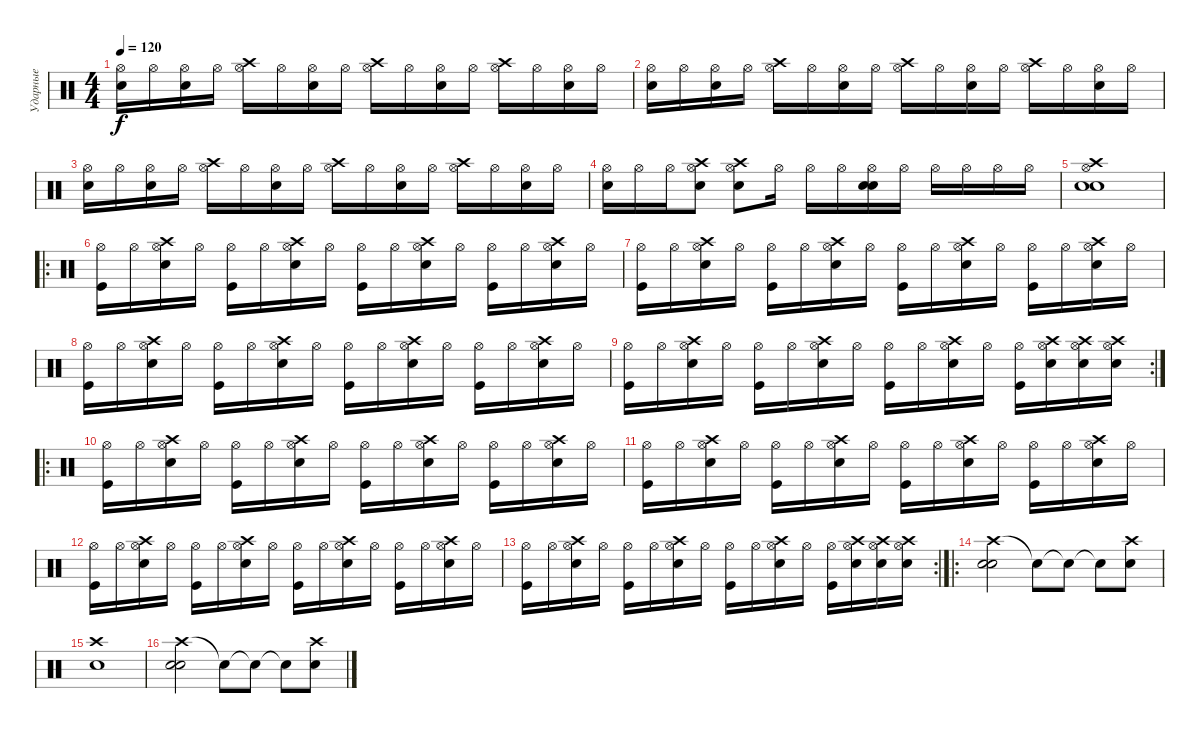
\track ("Ударные" "Ударные") {instrument percussion}
\staff {score}
\articulation defaults
\ts (4 4)
\tempo 120
\clef neutral
\ks c
("Hi-Hat (open)" "Snare (hit) 2").16{dy f} "Hi-Hat (open)".16 ("Hi-Hat (open)" "Snare (hit) 2").16 "Hi-Hat (open)".16 ("Hi-Hat (open)" "Crash high (hit)").16 "Hi-Hat (open)".16 ("Hi-Hat (open)" "Snare (hit) 2").16 "Hi-Hat (open)".16 ("Hi-Hat (open)" "Crash high (hit)").16 "Hi-Hat (open)".16 ("Hi-Hat (open)" "Snare (hit) 2").16 "Hi-Hat (open)".16 ("Hi-Hat (open)" "Crash high (hit)").16 "Hi-Hat (open)".16 ("Hi-Hat (open)" "Snare (hit) 2").16 "Hi-Hat (open)".16 |
("Hi-Hat (open)" "Snare (hit) 2").16 "Hi-Hat (open)".16 ("Hi-Hat (open)" "Snare (hit) 2").16 "Hi-Hat (open)".16 ("Hi-Hat (open)" "Crash high (hit)").16 "Hi-Hat (open)".16 ("Hi-Hat (open)" "Snare (hit) 2").16 "Hi-Hat (open)".16 ("Hi-Hat (open)" "Crash high (hit)").16 "Hi-Hat (open)".16 ("Hi-Hat (open)" "Snare (hit) 2").16 "Hi-Hat (open)".16 ("Hi-Hat (open)" "Crash high (hit)").16 "Hi-Hat (open)".16 ("Hi-Hat (open)" "Snare (hit) 2").16 "Hi-Hat (open)".16 |
("Hi-Hat (open)" "Snare (hit) 2").16 "Hi-Hat (open)".16 ("Hi-Hat (open)" "Snare (hit) 2").16 "Hi-Hat (open)".16 ("Hi-Hat (open)" "Crash high (hit)").16 "Hi-Hat (open)".16 ("Hi-Hat (open)" "Snare (hit) 2").16 "Hi-Hat (open)".16 ("Hi-Hat (open)" "Crash high (hit)").16 "Hi-Hat (open)".16 ("Hi-Hat (open)" "Snare (hit) 2").16 "Hi-Hat (open)".16 ("Hi-Hat (open)" "Crash high (hit)").16 "Hi-Hat (open)".16 ("Hi-Hat (open)" "Snare (hit) 2").16 "Hi-Hat (open)".16 |
("Hi-Hat (open)" "Electric Snare (hit)").16 "Hi-Hat (open)".16 "Hi-Hat (open)".16 ("Hi-Hat (open)" "Snare (hit) 2" "Crash high (hit)").8 ("Hi-Hat (open)" "Snare (hit) 2" "Crash high (hit)").8 "Hi-Hat (open)".16 "Hi-Hat (open)".16 "Hi-Hat (open)".16 ("Hi-Hat (open)" "Snare (hit) 2" "Electric Snare (hit)").16 "Hi-Hat (open)".16 "Hi-Hat (open)".16 "Hi-Hat (open)".16 "Hi-Hat (open)".16 "Hi-Hat (open)".16 |
("Hi-Hat (open)" "Crash high (hit)" "Snare (hit) 2" "Electric Snare (hit)").1 |
\ro
("Hi-Hat (open)" "Kick (hit)").16 "Hi-Hat (open)".16 ("Hi-Hat (open)" "Electric Snare (hit)" "Crash high (hit)").16 "Hi-Hat (open)".16 ("Hi-Hat (open)" "Kick (hit)").16 "Hi-Hat (open)".16 ("Hi-Hat (open)" "Electric Snare (hit)" "Crash high (hit)").16 "Hi-Hat (open)".16 ("Hi-Hat (open)" "Kick (hit)").16 "Hi-Hat (open)".16 ("Hi-Hat (open)" "Electric Snare (hit)" "Crash high (hit)").16 "Hi-Hat (open)".16 ("Hi-Hat (open)" "Kick (hit)").16 "Hi-Hat (open)".16 ("Hi-Hat (open)" "Electric Snare (hit)" "Crash high (hit)").16 "Hi-Hat (open)".16 |
("Hi-Hat (open)" "Kick (hit)").16 "Hi-Hat (open)".16 ("Hi-Hat (open)" "Electric Snare (hit)" "Crash high (hit)").16 "Hi-Hat (open)".16 ("Hi-Hat (open)" "Kick (hit)").16 "Hi-Hat (open)".16 ("Hi-Hat (open)" "Electric Snare (hit)" "Crash high (hit)").16 "Hi-Hat (open)".16 ("Hi-Hat (open)" "Kick (hit)").16 "Hi-Hat (open)".16 ("Hi-Hat (open)" "Electric Snare (hit)" "Crash high (hit)").16 "Hi-Hat (open)".16 ("Hi-Hat (open)" "Kick (hit)").16 "Hi-Hat (open)".16 ("Hi-Hat (open)" "Electric Snare (hit)" "Crash high (hit)").16 "Hi-Hat (open)".16 |
("Hi-Hat (open)" "Kick (hit)").16 "Hi-Hat (open)".16 ("Hi-Hat (open)" "Electric Snare (hit)" "Crash high (hit)").16 "Hi-Hat (open)".16 ("Hi-Hat (open)" "Kick (hit)").16 "Hi-Hat (open)".16 ("Hi-Hat (open)" "Electric Snare (hit)" "Crash high (hit)").16 "Hi-Hat (open)".16 ("Hi-Hat (open)" "Kick (hit)").16 "Hi-Hat (open)".16 ("Hi-Hat (open)" "Electric Snare (hit)" "Crash high (hit)").16 "Hi-Hat (open)".16 ("Hi-Hat (open)" "Kick (hit)").16 "Hi-Hat (open)".16 ("Hi-Hat (open)" "Electric Snare (hit)" "Crash high (hit)").16 "Hi-Hat (open)".16 |
\rc 2
("Hi-Hat (open)" "Kick (hit)").16 "Hi-Hat (open)".16 ("Hi-Hat (open)" "Electric Snare (hit)" "Crash high (hit)").16 "Hi-Hat (open)".16 ("Hi-Hat (open)" "Kick (hit)").16 "Hi-Hat (open)".16 ("Hi-Hat (open)" "Electric Snare (hit)" "Crash high (hit)").16 "Hi-Hat (open)".16 ("Hi-Hat (open)" "Kick (hit)").16 "Hi-Hat (open)".16 ("Hi-Hat (open)" "Electric Snare (hit)" "Crash high (hit)").16 "Hi-Hat (open)".16 ("Hi-Hat (open)" "Kick (hit)").16 ("Hi-Hat (open)" "Snare (hit) 2" "Crash high (hit)").16 ("Hi-Hat (open)" "Electric Snare (hit)" "Crash high (hit)").16 ("Hi-Hat (open)" "Snare (hit) 2" "Crash high (hit)").16 |
\ro
("Hi-Hat (open)" "Kick (hit)").16 "Hi-Hat (open)".16 ("Hi-Hat (open)" "Electric Snare (hit)" "Crash high (hit)").16 "Hi-Hat (open)".16 ("Hi-Hat (open)" "Kick (hit)").16 "Hi-Hat (open)".16 ("Hi-Hat (open)" "Electric Snare (hit)" "Crash high (hit)").16 "Hi-Hat (open)".16 ("Hi-Hat (open)" "Kick (hit)").16 "Hi-Hat (open)".16 ("Hi-Hat (open)" "Electric Snare (hit)" "Crash high (hit)").16 "Hi-Hat (open)".16 ("Hi-Hat (open)" "Kick (hit)").16 "Hi-Hat (open)".16 ("Hi-Hat (open)" "Electric Snare (hit)" "Crash high (hit)").16 "Hi-Hat (open)".16 |
("Hi-Hat (open)" "Kick (hit)").16 "Hi-Hat (open)".16 ("Hi-Hat (open)" "Electric Snare (hit)" "Crash high (hit)").16 "Hi-Hat (open)".16 ("Hi-Hat (open)" "Kick (hit)").16 "Hi-Hat (open)".16 ("Hi-Hat (open)" "Electric Snare (hit)" "Crash high (hit)").16 "Hi-Hat (open)".16 ("Hi-Hat (open)" "Kick (hit)").16 "Hi-Hat (open)".16 ("Hi-Hat (open)" "Electric Snare (hit)" "Crash high (hit)").16 "Hi-Hat (open)".16 ("Hi-Hat (open)" "Kick (hit)").16 "Hi-Hat (open)".16 ("Hi-Hat (open)" "Electric Snare (hit)" "Crash high (hit)").16 "Hi-Hat (open)".16 |
("Hi-Hat (open)" "Kick (hit)").16 "Hi-Hat (open)".16 ("Hi-Hat (open)" "Electric Snare (hit)" "Crash high (hit)").16 "Hi-Hat (open)".16 ("Hi-Hat (open)" "Kick (hit)").16 "Hi-Hat (open)".16 ("Hi-Hat (open)" "Electric Snare (hit)" "Crash high (hit)").16 "Hi-Hat (open)".16 ("Hi-Hat (open)" "Kick (hit)").16 "Hi-Hat (open)".16 ("Hi-Hat (open)" "Electric Snare (hit)" "Crash high (hit)").16 "Hi-Hat (open)".16 ("Hi-Hat (open)" "Kick (hit)").16 "Hi-Hat (open)".16 ("Hi-Hat (open)" "Electric Snare (hit)" "Crash high (hit)").16 "Hi-Hat (open)".16 |
\rc 2
("Hi-Hat (open)" "Kick (hit)").16 "Hi-Hat (open)".16 ("Hi-Hat (open)" "Electric Snare (hit)" "Crash high (hit)").16 "Hi-Hat (open)".16 ("Hi-Hat (open)" "Kick (hit)").16 "Hi-Hat (open)".16 ("Hi-Hat (open)" "Electric Snare (hit)" "Crash high (hit)").16 "Hi-Hat (open)".16 ("Hi-Hat (open)" "Kick (hit)").16 "Hi-Hat (open)".16 ("Hi-Hat (open)" "Electric Snare (hit)" "Crash high (hit)").16 "Hi-Hat (open)".16 ("Hi-Hat (open)" "Kick (hit)").16 ("Hi-Hat (open)" "Snare (hit) 2" "Crash high (hit)").16 ("Hi-Hat (open)" "Electric Snare (hit)" "Crash high (hit)").16 ("Hi-Hat (open)" "Snare (hit) 2" "Crash high (hit)").16 |
\ro
("Crash high (hit)" "Snare (hit) 2" "Electric Snare (hit)").2 "Snare (hit)"{t}.8 "Snare (hit)"{t}.8 "Snare (hit)"{t}.8 ("Crash high (hit)" "Snare (hit) 2").8 |
("Crash high (hit)" "Electric Snare (hit)").1 |
("Crash high (hit)" "Snare (hit) 2" "Electric Snare (hit)").2 "Snare (hit)"{t}.8 "Snare (hit)"{t}.8 "Snare (hit)"{t}.8 ("Crash high (hit)" "Snare (hit) 2").8
